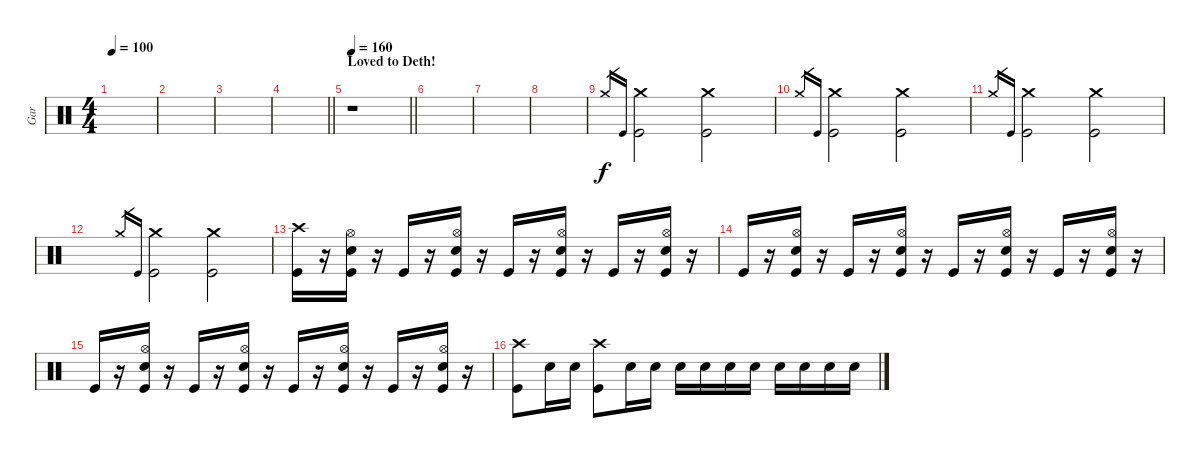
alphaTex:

\track ("Gar" "Gar") {instrument percussion}
\staff {score}
\articulation defaults
\ts (4 4)
\tempo 100
\clef neutral
\ks c
|
|
|
\barLineRight lightlight
|
\section ("" "Loved to Deth!")
\tempo 160
\barLineRight lightlight
r.1 |
|
|
|
"Crash medium (hit)".16{gr} "Kick (hit)".16{gr} ("Crash medium (hit)" "Kick (hit)").2 ("Crash medium (hit)" "Kick (hit)").2 |
"Crash medium (hit)".16{gr} "Kick (hit)".16{gr} ("Crash medium (hit)" "Kick (hit)").2 ("Crash medium (hit)" "Kick (hit)").2 |
"Crash medium (hit)".16{gr} "Kick (hit)".16{gr} ("Crash medium (hit)" "Kick (hit)").2 ("Crash medium (hit)" "Kick (hit)").2 |
"Crash medium (hit)".16{gr} "Kick (hit)".16{gr} ("Crash medium (hit)" "Kick (hit)").2 ("Crash medium (hit)" "Kick (hit)").2 |
("Crash high (hit)" "Kick (hit)").16 r.16 ("Hi-Hat (open)" "Snare (hit) 2" "Kick (hit)").16 r.16 "Kick (hit)".16 r.16 ("Hi-Hat (open)" "Snare (hit) 2" "Kick (hit)").16 r.16 "Kick (hit)".16 r.16 ("Hi-Hat (open)" "Snare (hit) 2" "Kick (hit)").16 r.16 "Kick (hit)".16 r.16 ("Hi-Hat (open)" "Snare (hit) 2" "Kick (hit)").16 r.16 |
"Kick (hit)".16 r.16 ("Hi-Hat (open)" "Snare (hit) 2" "Kick (hit)").16 r.16 "Kick (hit)".16 r.16 ("Hi-Hat (open)" "Snare (hit) 2" "Kick (hit)").16 r.16 "Kick (hit)".16 r.16 ("Hi-Hat (open)" "Snare (hit) 2" "Kick (hit)").16 r.16 "Kick (hit)".16 r.16 ("Hi-Hat (open)" "Snare (hit) 2" "Kick (hit)").16 r.16 |
"Kick (hit)".16 r.16 ("Hi-Hat (open)" "Snare (hit) 2" "Kick (hit)").16 r.16 "Kick (hit)".16 r.16 ("Hi-Hat (open)" "Snare (hit) 2" "Kick (hit)").16 r.16 "Kick (hit)".16 r.16 ("Hi-Hat (open)" "Snare (hit) 2" "Kick (hit)").16 r.16 "Kick (hit)".16 r.16 ("Hi-Hat (open)" "Snare (hit) 2" "Kick (hit)").16 r.16 |
("Crash high (hit)" "Kick (hit)").8 "Snare (hit) 2".16 "Snare (hit) 2".16 ("Crash high (hit)" "Kick (hit)").8 "Snare (hit) 2".16 "Snare (hit) 2".16 "Snare (hit) 2".16 "Snare (hit) 2".16 "Snare (hit) 2".16 "Snare (hit) 2".16 "Snare (hit) 2".16 "Snare (hit) 2".16 "Snare (hit) 2".16 "Snare (hit) 2".16
